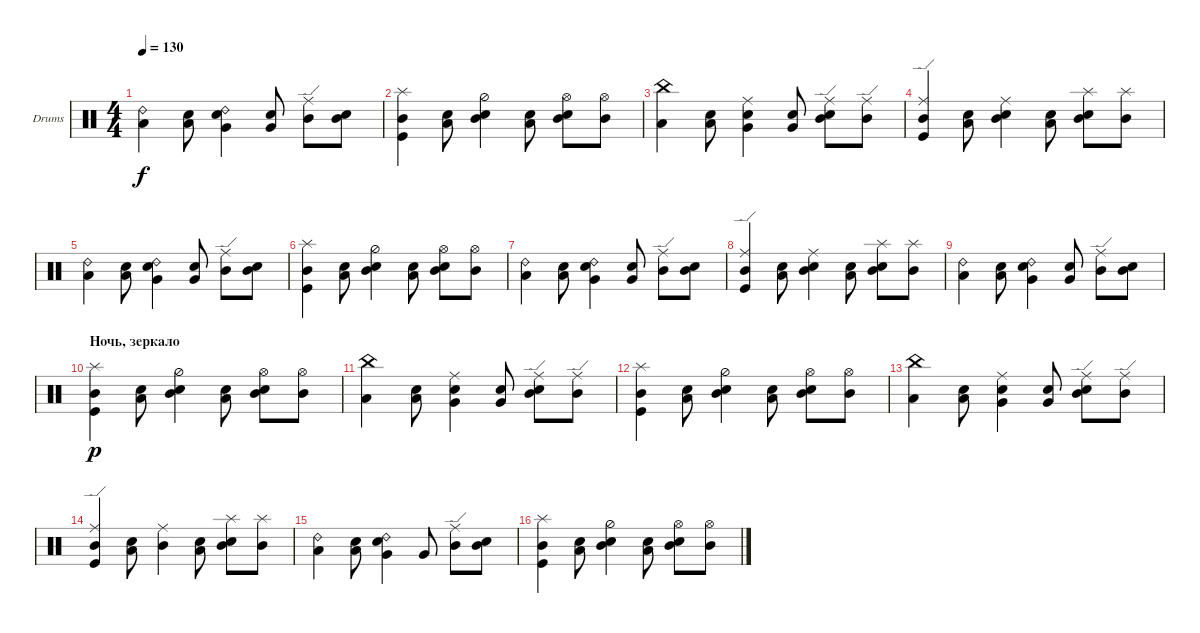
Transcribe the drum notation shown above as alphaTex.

\defaultSystemsLayout 4
\bracketExtendMode groupsimilarinstruments
\firstSystemTrackNameOrientation horizontal
\otherSystemsTrackNameOrientation horizontal
\track ("Drumkit" "Drums") {instrument percussion}
\staff {score}
\articulation defaults
\ts (4 4)
\tempo 130
\clef neutral
\ks c
("Low Tom (hit)" "Ride (bell) 2").4{dy f} ("Low Tom (hit)" "Snare (hit) 2").8 ("Very Low Tom (hit)" "Snare (hit) 2" "Ride (bell) 2").4 ("Very Low Tom (hit)" "Snare (hit) 2").8 ("Mid Tom (hit)" "Ride (edge)").8 ("Mid Tom (hit)" "Snare (hit) 2").8 |
("Mid Tom (hit)" "Kick (hit)" "Splash (hit)").4 ("Low Tom (hit)" "Snare (hit) 2").8 ("Mid Tom (hit)" "Snare (hit) 2" "Hi-Hat (half)").4 ("Low Tom (hit)" "Snare (hit) 2").8 ("Mid Tom (hit)" "Snare (hit) 2" "Hi-Hat (open)").8 ("Mid Tom (hit)" "Hi-Hat (open)").8 |
("Low Tom (hit)" "China (hit)").4 ("Low Tom (hit)" "Snare (hit) 2").8 ("Very Low Tom (hit)" "Snare (hit) 2" "Ride (middle)").4 ("Very Low Tom (hit)" "Snare (hit) 2").8 ("Mid Tom (hit)" "Snare (hit) 2" "Ride (edge)").8 ("Mid Tom (hit)" "Ride (edge)").8 |
("Mid Tom (hit)" "Kick (hit)" "Ride (edge)").4 ("Low Tom (hit)" "Snare (hit) 2").8 ("Mid Tom (hit)" "Snare (hit) 2" "Ride (middle)").4 ("Low Tom (hit)" "Snare (hit) 2").8 ("Mid Tom (hit)" "Snare (hit) 2" "Splash (hit)").8 ("Mid Tom (hit)" "Splash (hit)").8 |
("Low Tom (hit)" "Ride (bell) 2").4 ("Low Tom (hit)" "Snare (hit) 2").8 ("Very Low Tom (hit)" "Snare (hit) 2" "Ride (bell) 2").4 ("Very Low Tom (hit)" "Snare (hit) 2").8 ("Mid Tom (hit)" "Ride (edge)").8 ("Mid Tom (hit)" "Snare (hit) 2").8 |
("Mid Tom (hit)" "Kick (hit)" "Splash (hit)").4 ("Low Tom (hit)" "Snare (hit) 2").8 ("Mid Tom (hit)" "Snare (hit) 2" "Hi-Hat (half)").4 ("Low Tom (hit)" "Snare (hit) 2").8 ("Mid Tom (hit)" "Snare (hit) 2" "Hi-Hat (open)").8 ("Mid Tom (hit)" "Hi-Hat (open)").8 |
("Low Tom (hit)" "Ride (bell) 2").4 ("Low Tom (hit)" "Snare (hit) 2").8 ("Very Low Tom (hit)" "Snare (hit) 2" "Ride (bell) 2").4 ("Very Low Tom (hit)" "Snare (hit) 2").8 ("Mid Tom (hit)" "Ride (edge)").8 ("Mid Tom (hit)" "Snare (hit) 2").8 |
("Mid Tom (hit)" "Kick (hit)" "Ride (edge)").4 ("Low Tom (hit)" "Snare (hit) 2").8 ("Mid Tom (hit)" "Snare (hit) 2" "Ride (middle)").4 ("Low Tom (hit)" "Snare (hit) 2").8 ("Mid Tom (hit)" "Snare (hit) 2" "Splash (hit)").8 ("Mid Tom (hit)" "Splash (hit)").8 |
("Low Tom (hit)" "Ride (bell) 2").4 ("Low Tom (hit)" "Snare (hit) 2").8 ("Very Low Tom (hit)" "Snare (hit) 2" "Ride (bell) 2").4 ("Very Low Tom (hit)" "Snare (hit) 2").8 ("Mid Tom (hit)" "Ride (edge)").8 ("Mid Tom (hit)" "Snare (hit) 2").8 |
\section ("" "Ночь, зеркало")
("Mid Tom (hit)" "Kick (hit)" "Splash (hit)").4{dy p} ("Low Tom (hit)" "Snare (hit) 2").8 ("Mid Tom (hit)" "Snare (hit) 2" "Hi-Hat (half)").4 ("Low Tom (hit)" "Snare (hit) 2").8 ("Mid Tom (hit)" "Snare (hit) 2" "Hi-Hat (open)").8 ("Mid Tom (hit)" "Hi-Hat (open)").8 |
("Low Tom (hit)" "China (hit)").4 ("Low Tom (hit)" "Snare (hit) 2").8 ("Very Low Tom (hit)" "Snare (hit) 2" "Ride (middle)").4 ("Very Low Tom (hit)" "Snare (hit) 2").8 ("Mid Tom (hit)" "Snare (hit) 2" "Ride (edge)").8 ("Mid Tom (hit)" "Ride (edge)").8 |
("Mid Tom (hit)" "Kick (hit)" "Splash (hit)").4 ("Low Tom (hit)" "Snare (hit) 2").8 ("Mid Tom (hit)" "Snare (hit) 2" "Hi-Hat (half)").4 ("Low Tom (hit)" "Snare (hit) 2").8 ("Mid Tom (hit)" "Snare (hit) 2" "Hi-Hat (open)").8 ("Mid Tom (hit)" "Hi-Hat (open)").8 |
("Low Tom (hit)" "China (hit)").4 ("Low Tom (hit)" "Snare (hit) 2").8 ("Very Low Tom (hit)" "Snare (hit) 2" "Ride (middle)").4 ("Very Low Tom (hit)" "Snare (hit) 2").8 ("Mid Tom (hit)" "Snare (hit) 2" "Ride (edge)").8 ("Mid Tom (hit)" "Ride (edge)").8 |
("Mid Tom (hit)" "Kick (hit)" "Ride (edge)").4 ("Low Tom (hit)" "Snare (hit) 2").8 ("Mid Tom (hit)" "Ride (middle)").4 ("Low Tom (hit)" "Snare (hit) 2").8 ("Mid Tom (hit)" "Snare (hit) 2" "Splash (hit)").8 ("Mid Tom (hit)" "Splash (hit)").8 |
("Low Tom (hit)" "Ride (bell) 2").4 ("Low Tom (hit)" "Snare (hit) 2").8 ("Very Low Tom (hit)" "Snare (hit) 2" "Ride (bell) 2").4 "Very Low Tom (hit)".8 ("Mid Tom (hit)" "Ride (edge)").8 ("Mid Tom (hit)" "Snare (hit) 2").8 |
("Mid Tom (hit)" "Kick (hit)" "Splash (hit)").4 ("Low Tom (hit)" "Snare (hit) 2").8 ("Mid Tom (hit)" "Snare (hit) 2" "Hi-Hat (half)").4 ("Low Tom (hit)" "Snare (hit) 2").8 ("Mid Tom (hit)" "Snare (hit) 2" "Hi-Hat (open)").8 ("Mid Tom (hit)" "Hi-Hat (open)").8
